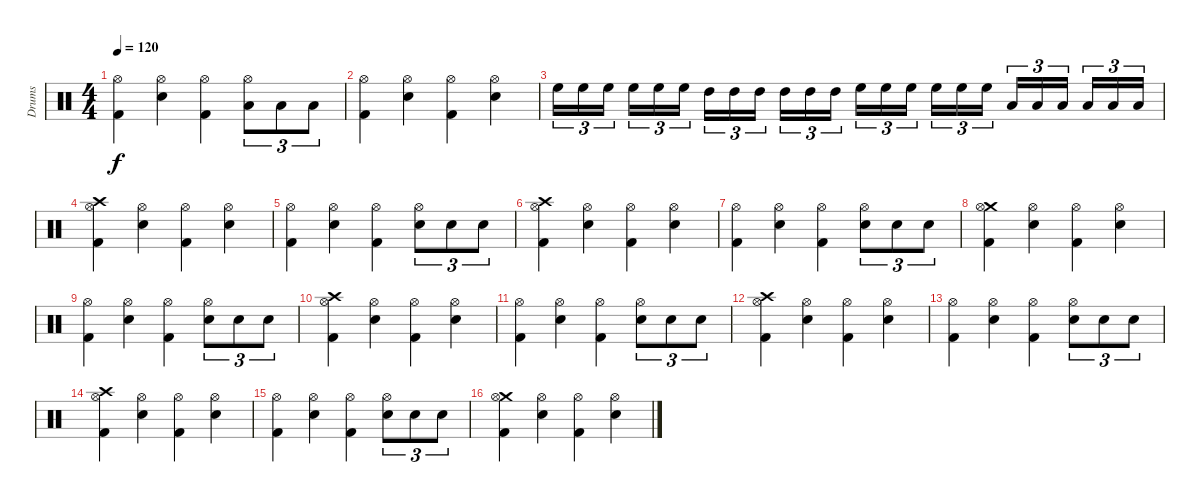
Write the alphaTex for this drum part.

\track ("Drums" "Drums") {instrument percussion}
\staff {score}
\articulation defaults
\ts (4 4)
\tempo 120
\clef neutral
\ks c
("Hi-Hat (open)" "Kick (hit) 2").4{dy f} ("Hi-Hat (open)" "Snare (hit) 2").4 ("Hi-Hat (open)" "Kick (hit) 2").4 ("Hi-Hat (open)" "Low Floor Tom (hit)").8{tu (3 2)} "Low Floor Tom (hit)".8{tu (3 2)} "Low Floor Tom (hit)".8{tu (3 2)} |
("Hi-Hat (open)" "Kick (hit) 2").4 ("Hi-Hat (open)" "Snare (hit) 2").4 ("Hi-Hat (open)" "Kick (hit) 2").4 ("Hi-Hat (open)" "Snare (hit) 2").4 |
"High Floor Tom (hit)".16{tu (3 2)} "High Floor Tom (hit)".16{tu (3 2)} "High Floor Tom (hit)".16{tu (3 2)} "High Floor Tom (hit)".16{tu (3 2)} "High Floor Tom (hit)".16{tu (3 2)} "High Floor Tom (hit)".16{tu (3 2)} "High Tom (hit)".16{tu (3 2)} "High Tom (hit)".16{tu (3 2)} "High Tom (hit)".16{tu (3 2)} "High Tom (hit)".16{tu (3 2)} "High Tom (hit)".16{tu (3 2)} "High Tom (hit)".16{tu (3 2)} "High Floor Tom (hit)".16{tu (3 2)} "High Floor Tom (hit)".16{tu (3 2)} "High Floor Tom (hit)".16{tu (3 2)} "High Floor Tom (hit)".16{tu (3 2)} "High Floor Tom (hit)".16{tu (3 2)} "High Floor Tom (hit)".16{tu (3 2)} "Low Tom (hit)".16{tu (3 2)} "Low Tom (hit)".16{tu (3 2)} "Low Tom (hit)".16{tu (3 2)} "Low Tom (hit)".16{tu (3 2)} "Low Tom (hit)".16{tu (3 2)} "Low Tom (hit)".16{tu (3 2)} |
("Crash high (hit)" "Hi-Hat (open)" "Kick (hit) 2").4 ("Hi-Hat (open)" "Snare (hit) 2").4 ("Hi-Hat (open)" "Kick (hit) 2").4 ("Hi-Hat (open)" "Snare (hit) 2").4 |
("Hi-Hat (open)" "Kick (hit) 2").4 ("Hi-Hat (open)" "Snare (hit) 2").4 ("Hi-Hat (open)" "Kick (hit) 2").4 ("Hi-Hat (open)" "Snare (hit) 2").8{tu (3 2)} "Snare (hit) 2".8{tu (3 2)} "Snare (hit) 2".8{tu (3 2)} |
("Crash high (hit)" "Hi-Hat (open)" "Kick (hit) 2").4 ("Hi-Hat (open)" "Snare (hit) 2").4 ("Hi-Hat (open)" "Kick (hit) 2").4 ("Hi-Hat (open)" "Snare (hit) 2").4 |
("Hi-Hat (open)" "Kick (hit) 2").4 ("Hi-Hat (open)" "Snare (hit) 2").4 ("Hi-Hat (open)" "Kick (hit) 2").4 ("Hi-Hat (open)" "Snare (hit) 2").8{tu (3 2)} "Snare (hit) 2".8{tu (3 2)} "Snare (hit) 2".8{tu (3 2)} |
("Crash medium (hit)" "Hi-Hat (open)" "Kick (hit) 2").4 ("Hi-Hat (open)" "Snare (hit) 2").4 ("Hi-Hat (open)" "Kick (hit) 2").4 ("Hi-Hat (open)" "Snare (hit) 2").4 |
("Hi-Hat (open)" "Kick (hit) 2").4 ("Hi-Hat (open)" "Snare (hit) 2").4 ("Hi-Hat (open)" "Kick (hit) 2").4 ("Hi-Hat (open)" "Snare (hit) 2").8{tu (3 2)} "Snare (hit) 2".8{tu (3 2)} "Snare (hit) 2".8{tu (3 2)} |
("Crash high (hit)" "Hi-Hat (open)" "Kick (hit) 2").4 ("Hi-Hat (open)" "Snare (hit) 2").4 ("Hi-Hat (open)" "Kick (hit) 2").4 ("Hi-Hat (open)" "Snare (hit) 2").4 |
("Hi-Hat (open)" "Kick (hit) 2").4 ("Hi-Hat (open)" "Snare (hit) 2").4 ("Hi-Hat (open)" "Kick (hit) 2").4 ("Hi-Hat (open)" "Snare (hit) 2").8{tu (3 2)} "Snare (hit) 2".8{tu (3 2)} "Snare (hit) 2".8{tu (3 2)} |
("Crash high (hit)" "Hi-Hat (open)" "Kick (hit) 2").4 ("Hi-Hat (open)" "Snare (hit) 2").4 ("Hi-Hat (open)" "Kick (hit) 2").4 ("Hi-Hat (open)" "Snare (hit) 2").4 |
("Hi-Hat (open)" "Kick (hit) 2").4 ("Hi-Hat (open)" "Snare (hit) 2").4 ("Hi-Hat (open)" "Kick (hit) 2").4 ("Hi-Hat (open)" "Snare (hit) 2").8{tu (3 2)} "Snare (hit) 2".8{tu (3 2)} "Snare (hit) 2".8{tu (3 2)} |
("Crash high (hit)" "Hi-Hat (open)" "Kick (hit) 2").4 ("Hi-Hat (open)" "Snare (hit) 2").4 ("Hi-Hat (open)" "Kick (hit) 2").4 ("Hi-Hat (open)" "Snare (hit) 2").4 |
("Hi-Hat (open)" "Kick (hit) 2").4 ("Hi-Hat (open)" "Snare (hit) 2").4 ("Hi-Hat (open)" "Kick (hit) 2").4 ("Hi-Hat (open)" "Snare (hit) 2").8{tu (3 2)} "Snare (hit) 2".8{tu (3 2)} "Snare (hit) 2".8{tu (3 2)} |
("Crash medium (hit)" "Hi-Hat (open)" "Kick (hit) 2").4 ("Hi-Hat (open)" "Snare (hit) 2").4 ("Hi-Hat (open)" "Kick (hit) 2").4 ("Hi-Hat (open)" "Snare (hit) 2").4
